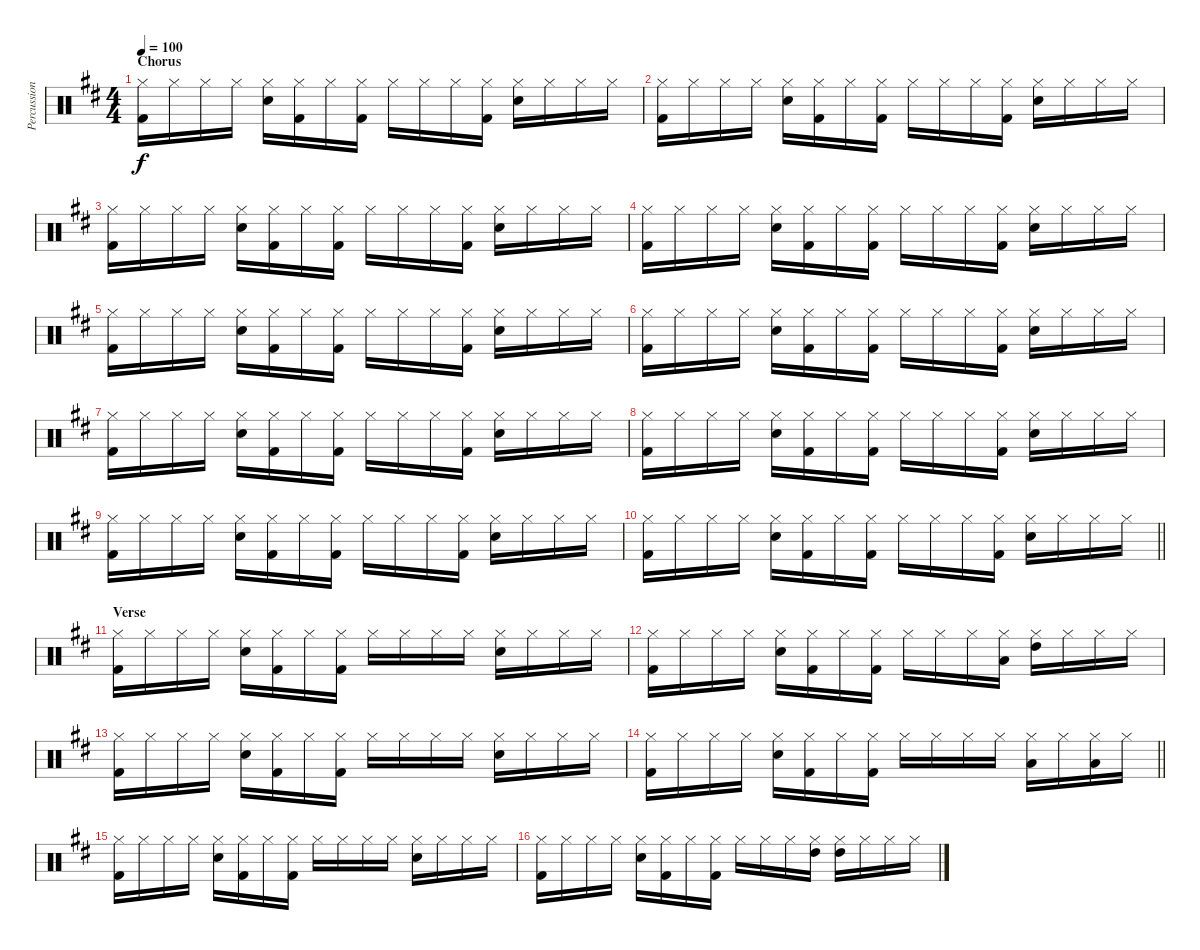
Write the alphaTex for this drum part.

\track ("Percussion" "Percussion") {instrument percussion}
\staff {score}
\articulation defaults
\ts (4 4)
\section ("" "Chorus")
\tempo 100
\clef neutral
\ks d
("Hi-Hat (closed)" "Kick (hit) 2").16{dy f} "Hi-Hat (closed)".16 "Hi-Hat (closed)".16 "Hi-Hat (closed)".16 ("Hi-Hat (closed)" "Snare (hit) 2").16 ("Hi-Hat (closed)" "Kick (hit) 2").16 "Hi-Hat (closed)".16 ("Hi-Hat (closed)" "Kick (hit) 2").16 "Hi-Hat (closed)".16 "Hi-Hat (closed)".16 "Hi-Hat (closed)".16 ("Hi-Hat (closed)" "Kick (hit) 2").16 ("Hi-Hat (closed)" "Snare (hit) 2").16 "Hi-Hat (closed)".16 "Hi-Hat (closed)".16 "Hi-Hat (closed)".16 |
("Hi-Hat (closed)" "Kick (hit) 2").16 "Hi-Hat (closed)".16 "Hi-Hat (closed)".16 "Hi-Hat (closed)".16 ("Hi-Hat (closed)" "Snare (hit) 2").16 ("Hi-Hat (closed)" "Kick (hit) 2").16 "Hi-Hat (closed)".16 ("Hi-Hat (closed)" "Kick (hit) 2").16 "Hi-Hat (closed)".16 "Hi-Hat (closed)".16 "Hi-Hat (closed)".16 ("Hi-Hat (closed)" "Kick (hit) 2").16 ("Hi-Hat (closed)" "Snare (hit) 2").16 "Hi-Hat (closed)".16 "Hi-Hat (closed)".16 "Hi-Hat (closed)".16 |
("Hi-Hat (closed)" "Kick (hit) 2").16 "Hi-Hat (closed)".16 "Hi-Hat (closed)".16 "Hi-Hat (closed)".16 ("Hi-Hat (closed)" "Snare (hit) 2").16 ("Hi-Hat (closed)" "Kick (hit) 2").16 "Hi-Hat (closed)".16 ("Hi-Hat (closed)" "Kick (hit) 2").16 "Hi-Hat (closed)".16 "Hi-Hat (closed)".16 "Hi-Hat (closed)".16 ("Hi-Hat (closed)" "Kick (hit) 2").16 ("Hi-Hat (closed)" "Snare (hit) 2").16 "Hi-Hat (closed)".16 "Hi-Hat (closed)".16 "Hi-Hat (closed)".16 |
("Hi-Hat (closed)" "Kick (hit) 2").16 "Hi-Hat (closed)".16 "Hi-Hat (closed)".16 "Hi-Hat (closed)".16 ("Hi-Hat (closed)" "Snare (hit) 2").16 ("Hi-Hat (closed)" "Kick (hit) 2").16 "Hi-Hat (closed)".16 ("Hi-Hat (closed)" "Kick (hit) 2").16 "Hi-Hat (closed)".16 "Hi-Hat (closed)".16 "Hi-Hat (closed)".16 ("Hi-Hat (closed)" "Kick (hit) 2").16 ("Hi-Hat (closed)" "Snare (hit) 2").16 "Hi-Hat (closed)".16 "Hi-Hat (closed)".16 "Hi-Hat (closed)".16 |
("Hi-Hat (closed)" "Kick (hit) 2").16 "Hi-Hat (closed)".16 "Hi-Hat (closed)".16 "Hi-Hat (closed)".16 ("Hi-Hat (closed)" "Snare (hit) 2").16 ("Hi-Hat (closed)" "Kick (hit) 2").16 "Hi-Hat (closed)".16 ("Hi-Hat (closed)" "Kick (hit) 2").16 "Hi-Hat (closed)".16 "Hi-Hat (closed)".16 "Hi-Hat (closed)".16 ("Hi-Hat (closed)" "Kick (hit) 2").16 ("Hi-Hat (closed)" "Snare (hit) 2").16 "Hi-Hat (closed)".16 "Hi-Hat (closed)".16 "Hi-Hat (closed)".16 |
("Hi-Hat (closed)" "Kick (hit) 2").16 "Hi-Hat (closed)".16 "Hi-Hat (closed)".16 "Hi-Hat (closed)".16 ("Hi-Hat (closed)" "Snare (hit) 2").16 ("Hi-Hat (closed)" "Kick (hit) 2").16 "Hi-Hat (closed)".16 ("Hi-Hat (closed)" "Kick (hit) 2").16 "Hi-Hat (closed)".16 "Hi-Hat (closed)".16 "Hi-Hat (closed)".16 ("Hi-Hat (closed)" "Kick (hit) 2").16 ("Hi-Hat (closed)" "Snare (hit) 2").16 "Hi-Hat (closed)".16 "Hi-Hat (closed)".16 "Hi-Hat (closed)".16 |
("Hi-Hat (closed)" "Kick (hit) 2").16 "Hi-Hat (closed)".16 "Hi-Hat (closed)".16 "Hi-Hat (closed)".16 ("Hi-Hat (closed)" "Snare (hit) 2").16 ("Hi-Hat (closed)" "Kick (hit) 2").16 "Hi-Hat (closed)".16 ("Hi-Hat (closed)" "Kick (hit) 2").16 "Hi-Hat (closed)".16 "Hi-Hat (closed)".16 "Hi-Hat (closed)".16 ("Hi-Hat (closed)" "Kick (hit) 2").16 ("Hi-Hat (closed)" "Snare (hit) 2").16 "Hi-Hat (closed)".16 "Hi-Hat (closed)".16 "Hi-Hat (closed)".16 |
("Hi-Hat (closed)" "Kick (hit) 2").16 "Hi-Hat (closed)".16 "Hi-Hat (closed)".16 "Hi-Hat (closed)".16 ("Hi-Hat (closed)" "Snare (hit) 2").16 ("Hi-Hat (closed)" "Kick (hit) 2").16 "Hi-Hat (closed)".16 ("Hi-Hat (closed)" "Kick (hit) 2").16 "Hi-Hat (closed)".16 "Hi-Hat (closed)".16 "Hi-Hat (closed)".16 ("Hi-Hat (closed)" "Kick (hit) 2").16 ("Hi-Hat (closed)" "Snare (hit) 2").16 "Hi-Hat (closed)".16 "Hi-Hat (closed)".16 "Hi-Hat (closed)".16 |
("Hi-Hat (closed)" "Kick (hit) 2").16 "Hi-Hat (closed)".16 "Hi-Hat (closed)".16 "Hi-Hat (closed)".16 ("Hi-Hat (closed)" "Snare (hit) 2").16 ("Hi-Hat (closed)" "Kick (hit) 2").16 "Hi-Hat (closed)".16 ("Hi-Hat (closed)" "Kick (hit) 2").16 "Hi-Hat (closed)".16 "Hi-Hat (closed)".16 "Hi-Hat (closed)".16 ("Hi-Hat (closed)" "Kick (hit) 2").16 ("Hi-Hat (closed)" "Snare (hit) 2").16 "Hi-Hat (closed)".16 "Hi-Hat (closed)".16 "Hi-Hat (closed)".16 |
\barLineRight lightlight
("Hi-Hat (closed)" "Kick (hit) 2").16 "Hi-Hat (closed)".16 "Hi-Hat (closed)".16 "Hi-Hat (closed)".16 ("Hi-Hat (closed)" "Snare (hit) 2").16 ("Hi-Hat (closed)" "Kick (hit) 2").16 "Hi-Hat (closed)".16 ("Hi-Hat (closed)" "Kick (hit) 2").16 "Hi-Hat (closed)".16 "Hi-Hat (closed)".16 "Hi-Hat (closed)".16 ("Hi-Hat (closed)" "Kick (hit) 2").16 ("Hi-Hat (closed)" "Snare (hit) 2").16 "Hi-Hat (closed)".16 "Hi-Hat (closed)".16 "Hi-Hat (closed)".16 |
\section ("" "Verse")
("Hi-Hat (closed)" "Kick (hit) 2").16 "Hi-Hat (closed)".16 "Hi-Hat (closed)".16 "Hi-Hat (closed)".16 ("Hi-Hat (closed)" "Snare (hit) 2").16 ("Hi-Hat (closed)" "Kick (hit) 2").16 "Hi-Hat (closed)".16 ("Hi-Hat (closed)" "Kick (hit) 2").16 "Hi-Hat (closed)".16 "Hi-Hat (closed)".16 "Hi-Hat (closed)".16 "Hi-Hat (closed)".16 ("Hi-Hat (closed)" "Snare (hit) 2").16 "Hi-Hat (closed)".16 "Hi-Hat (closed)".16 "Hi-Hat (closed)".16 |
("Hi-Hat (closed)" "Kick (hit) 2").16 "Hi-Hat (closed)".16 "Hi-Hat (closed)".16 "Hi-Hat (closed)".16 ("Hi-Hat (closed)" "Snare (hit) 2").16 ("Hi-Hat (closed)" "Kick (hit) 2").16 "Hi-Hat (closed)".16 ("Hi-Hat (closed)" "Kick (hit) 2").16 "Hi-Hat (closed)".16 "Hi-Hat (closed)".16 "Hi-Hat (closed)".16 ("Hi-Hat (closed)" "Low Tom (hit)").16 ("Hi-Hat (closed)" "High Tom (hit)").16 "Hi-Hat (closed)".16 "Hi-Hat (closed)".16 "Hi-Hat (closed)".16 |
("Hi-Hat (closed)" "Kick (hit) 2").16 "Hi-Hat (closed)".16 "Hi-Hat (closed)".16 "Hi-Hat (closed)".16 ("Hi-Hat (closed)" "Snare (hit) 2").16 ("Hi-Hat (closed)" "Kick (hit) 2").16 "Hi-Hat (closed)".16 ("Hi-Hat (closed)" "Kick (hit) 2").16 "Hi-Hat (closed)".16 "Hi-Hat (closed)".16 "Hi-Hat (closed)".16 "Hi-Hat (closed)".16 ("Hi-Hat (closed)" "Snare (hit) 2").16 "Hi-Hat (closed)".16 "Hi-Hat (closed)".16 "Hi-Hat (closed)".16 |
\barLineRight lightlight
("Hi-Hat (closed)" "Kick (hit) 2").16 "Hi-Hat (closed)".16 "Hi-Hat (closed)".16 "Hi-Hat (closed)".16 ("Hi-Hat (closed)" "Snare (hit) 2").16 ("Hi-Hat (closed)" "Kick (hit) 2").16 "Hi-Hat (closed)".16 ("Hi-Hat (closed)" "Kick (hit) 2").16 "Hi-Hat (closed)".16 "Hi-Hat (closed)".16 "Hi-Hat (closed)".16 "Hi-Hat (closed)".16 ("Hi-Hat (closed)" "Low Tom (hit)").16 "Hi-Hat (closed)".16 ("Hi-Hat (closed)" "Low Floor Tom (hit)").16 "Hi-Hat (closed)".16 |
("Hi-Hat (closed)" "Kick (hit) 2").16 "Hi-Hat (closed)".16 "Hi-Hat (closed)".16 "Hi-Hat (closed)".16 ("Hi-Hat (closed)" "Snare (hit) 2").16 ("Hi-Hat (closed)" "Kick (hit) 2").16 "Hi-Hat (closed)".16 ("Hi-Hat (closed)" "Kick (hit) 2").16 "Hi-Hat (closed)".16 "Hi-Hat (closed)".16 "Hi-Hat (closed)".16 "Hi-Hat (closed)".16 ("Hi-Hat (closed)" "Snare (hit) 2").16 "Hi-Hat (closed)".16 "Hi-Hat (closed)".16 "Hi-Hat (closed)".16 |
("Hi-Hat (closed)" "Kick (hit) 2").16 "Hi-Hat (closed)".16 "Hi-Hat (closed)".16 "Hi-Hat (closed)".16 ("Hi-Hat (closed)" "Snare (hit) 2").16 ("Hi-Hat (closed)" "Kick (hit) 2").16 "Hi-Hat (closed)".16 ("Hi-Hat (closed)" "Kick (hit) 2").16 "Hi-Hat (closed)".16 "Hi-Hat (closed)".16 "Hi-Hat (closed)".16 ("Hi-Hat (closed)" "High Tom (hit)").16 ("Hi-Hat (closed)" "High Tom (hit)").16 "Hi-Hat (closed)".16 "Hi-Hat (closed)".16 "Hi-Hat (closed)".16
